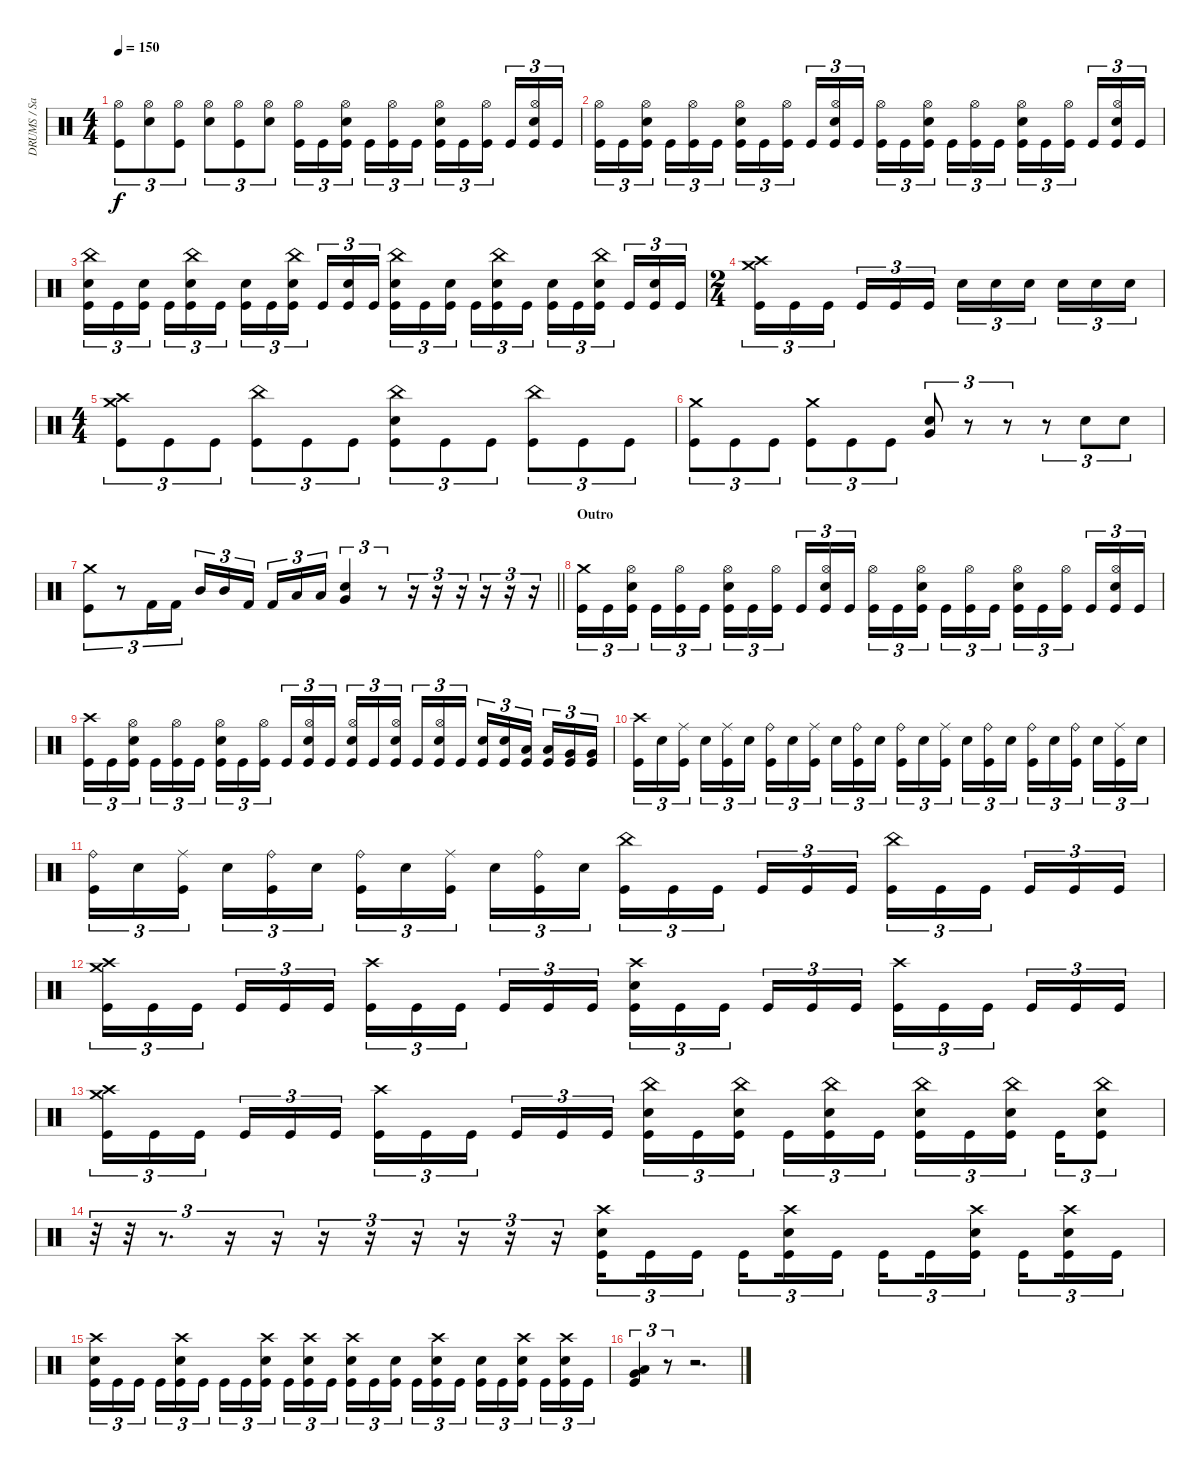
\track ("DRUMS / Sasha" "DRUMS / Sa") {instrument percussion}
\staff {score}
\articulation defaults
\ts (4 4)
\tempo 150
\clef neutral
\ks c
("Kick (hit)" "Hi-Hat (open)").8{tu (3 2) dy f} ("Hi-Hat (open)" "Snare (hit) 2").8{tu (3 2)} ("Kick (hit)" "Hi-Hat (open)").8{tu (3 2)} ("Hi-Hat (open)" "Snare (hit) 2").8{tu (3 2)} ("Kick (hit)" "Hi-Hat (open)").8{tu (3 2)} ("Hi-Hat (open)" "Snare (hit) 2").8{tu (3 2)} ("Kick (hit)" "Hi-Hat (open)").16{tu (3 2)} "Kick (hit)".16{tu (3 2)} ("Kick (hit)" "Hi-Hat (open)" "Snare (hit) 2").16{tu (3 2) beam splitsecondary} "Kick (hit)".16{tu (3 2)} ("Kick (hit)" "Hi-Hat (open)").16{tu (3 2)} "Kick (hit)".16{tu (3 2)} ("Kick (hit)" "Hi-Hat (open)" "Snare (hit) 2").16{tu (3 2)} "Kick (hit)".16{tu (3 2)} ("Kick (hit)" "Hi-Hat (open)").16{tu (3 2) beam splitsecondary} "Kick (hit)".16{tu (3 2)} ("Kick (hit)" "Hi-Hat (open)" "Snare (hit) 2").16{tu (3 2)} "Kick (hit)".16{tu (3 2)} |
("Kick (hit)" "Hi-Hat (open)").16{tu (3 2)} "Kick (hit)".16{tu (3 2)} ("Kick (hit)" "Hi-Hat (open)" "Snare (hit) 2").16{tu (3 2) beam splitsecondary} "Kick (hit)".16{tu (3 2)} ("Kick (hit)" "Hi-Hat (open)").16{tu (3 2)} "Kick (hit)".16{tu (3 2)} ("Kick (hit)" "Hi-Hat (open)" "Snare (hit) 2").16{tu (3 2)} "Kick (hit)".16{tu (3 2)} ("Kick (hit)" "Hi-Hat (open)").16{tu (3 2) beam splitsecondary} "Kick (hit)".16{tu (3 2)} ("Kick (hit)" "Hi-Hat (open)" "Snare (hit) 2").16{tu (3 2)} "Kick (hit)".16{tu (3 2)} ("Kick (hit)" "Hi-Hat (open)").16{tu (3 2)} "Kick (hit)".16{tu (3 2)} ("Kick (hit)" "Snare (hit) 2" "Hi-Hat (open)").16{tu (3 2) beam splitsecondary} "Kick (hit)".16{tu (3 2)} ("Kick (hit)" "Hi-Hat (open)").16{tu (3 2)} "Kick (hit)".16{tu (3 2)} ("Kick (hit)" "Snare (hit) 2" "Hi-Hat (open)").16{tu (3 2)} "Kick (hit)".16{tu (3 2)} ("Kick (hit)" "Hi-Hat (open)").16{tu (3 2) beam splitsecondary} "Kick (hit)".16{tu (3 2)} ("Kick (hit)" "Snare (hit) 2" "Hi-Hat (open)").16{tu (3 2)} "Kick (hit)".16{tu (3 2)} |
("Kick (hit)" "Snare (hit) 2" "China (hit)").16{tu (3 2)} "Kick (hit)".16{tu (3 2)} ("Kick (hit)" "Snare (hit) 2").16{tu (3 2) beam splitsecondary} "Kick (hit)".16{tu (3 2)} ("Kick (hit)" "Snare (hit) 2" "China (hit)").16{tu (3 2)} "Kick (hit)".16{tu (3 2)} ("Kick (hit)" "Snare (hit) 2").16{tu (3 2)} "Kick (hit)".16{tu (3 2)} ("Kick (hit)" "Snare (hit) 2" "China (hit)").16{tu (3 2) beam splitsecondary} "Kick (hit)".16{tu (3 2)} ("Kick (hit)" "Snare (hit) 2").16{tu (3 2)} "Kick (hit)".16{tu (3 2)} ("Kick (hit)" "Snare (hit) 2" "China (hit)").16{tu (3 2)} "Kick (hit)".16{tu (3 2)} ("Kick (hit)" "Snare (hit) 2").16{tu (3 2) beam splitsecondary} "Kick (hit)".16{tu (3 2)} ("Kick (hit)" "Snare (hit) 2" "China (hit)").16{tu (3 2)} "Kick (hit)".16{tu (3 2)} ("Kick (hit)" "Snare (hit) 2").16{tu (3 2)} "Kick (hit)".16{tu (3 2)} ("Kick (hit)" "Snare (hit) 2" "China (hit)").16{tu (3 2) beam splitsecondary} "Kick (hit)".16{tu (3 2)} ("Kick (hit)" "Snare (hit) 2").16{tu (3 2)} "Kick (hit)".16{tu (3 2)} |
\ts (2 4)
("Kick (hit)" "Crash medium (hit)" "Crash high (hit)").16{tu (3 2)} "Kick (hit)".16{tu (3 2)} "Kick (hit)".16{tu (3 2) beam splitsecondary} "Kick (hit)".16{tu (3 2)} "Kick (hit)".16{tu (3 2)} "Kick (hit)".16{tu (3 2)} "Snare (hit) 2".16{tu (3 2)} "Snare (hit) 2".16{tu (3 2)} "Snare (hit) 2".16{tu (3 2) beam splitsecondary} "Snare (hit) 2".16{tu (3 2)} "Snare (hit) 2".16{tu (3 2)} "Snare (hit) 2".16{tu (3 2)} |
\ts (4 4)
("Kick (hit)" "Crash medium (hit)" "Crash high (hit)").8{tu (3 2)} "Kick (hit)".8{tu (3 2)} "Kick (hit)".8{tu (3 2)} ("Kick (hit)" "China (hit)").8{tu (3 2)} "Kick (hit)".8{tu (3 2)} "Kick (hit)".8{tu (3 2)} ("Kick (hit)" "Snare (hit) 2" "China (hit)").8{tu (3 2)} "Kick (hit)".8{tu (3 2)} "Kick (hit)".8{tu (3 2)} ("Kick (hit)" "China (hit)").8{tu (3 2)} "Kick (hit)".8{tu (3 2)} "Kick (hit)".8{tu (3 2)} |
("Kick (hit)" "Crash medium (hit)").8{tu (3 2)} "Kick (hit)".8{tu (3 2)} "Kick (hit)".8{tu (3 2)} ("Kick (hit)" "Crash medium (hit)").8{tu (3 2)} "Kick (hit)".8{tu (3 2)} "Kick (hit)".8{tu (3 2)} ("Very Low Tom (hit)" "Snare (hit) 2").8{tu (3 2)} r.8{tu (3 2)} r.8{tu (3 2)} r.8{tu (3 2)} "Snare (hit) 2".8{tu (3 2)} "Snare (hit) 2".8{tu (3 2)} |
\barLineRight lightlight
("Kick (hit)" "Crash medium (hit)").8{tu (3 2)} r.8{tu (3 2)} "Kick (hit) 2".16{tu (3 2)} "Kick (hit) 2".16{tu (3 2)} "Mid Tom (hit)".16{tu (3 2)} "Mid Tom (hit)".16{tu (3 2)} "Kick (hit) 2".16{tu (3 2) beam splitsecondary} "Kick (hit) 2".16{tu (3 2)} "Low Tom (hit)".16{tu (3 2)} "Low Tom (hit)".16{tu (3 2)} ("Very Low Tom (hit)" "Electric Snare (hit)").4{tu (3 2)} r.8{tu (3 2)} r.16{tu (3 2)} r.16{tu (3 2)} r.16{tu (3 2)} r.16{tu (3 2)} r.16{tu (3 2)} r.16{tu (3 2)} |
\section ("" "Outro")
("Kick (hit)" "Crash medium (hit)").16{tu (3 2)} "Kick (hit)".16{tu (3 2)} ("Hi-Hat (open)" "Snare (hit) 2" "Kick (hit)").16{tu (3 2) beam splitsecondary} "Kick (hit)".16{tu (3 2)} ("Hi-Hat (open)" "Kick (hit)").16{tu (3 2)} "Kick (hit)".16{tu (3 2)} ("Hi-Hat (open)" "Snare (hit) 2" "Kick (hit)").16{tu (3 2)} "Kick (hit)".16{tu (3 2)} ("Hi-Hat (open)" "Kick (hit)").16{tu (3 2) beam splitsecondary} "Kick (hit)".16{tu (3 2)} ("Hi-Hat (open)" "Snare (hit) 2" "Kick (hit)").16{tu (3 2)} "Kick (hit)".16{tu (3 2)} ("Hi-Hat (open)" "Kick (hit)").16{tu (3 2)} "Kick (hit)".16{tu (3 2)} ("Hi-Hat (open)" "Snare (hit) 2" "Kick (hit)").16{tu (3 2) beam splitsecondary} "Kick (hit)".16{tu (3 2)} ("Hi-Hat (open)" "Kick (hit)").16{tu (3 2)} "Kick (hit)".16{tu (3 2)} ("Hi-Hat (open)" "Snare (hit) 2" "Kick (hit)").16{tu (3 2)} "Kick (hit)".16{tu (3 2)} ("Hi-Hat (open)" "Kick (hit)").16{tu (3 2) beam splitsecondary} "Kick (hit)".16{tu (3 2)} ("Hi-Hat (open)" "Snare (hit) 2" "Kick (hit)").16{tu (3 2)} "Kick (hit)".16{tu (3 2)} |
("Crash high (hit)" "Kick (hit)").16{tu (3 2)} "Kick (hit)".16{tu (3 2)} ("Hi-Hat (open)" "Snare (hit) 2" "Kick (hit)").16{tu (3 2) beam splitsecondary} "Kick (hit)".16{tu (3 2)} ("Hi-Hat (open)" "Kick (hit)").16{tu (3 2)} "Kick (hit)".16{tu (3 2)} ("Hi-Hat (open)" "Snare (hit) 2" "Kick (hit)").16{tu (3 2)} "Kick (hit)".16{tu (3 2)} ("Hi-Hat (open)" "Kick (hit)").16{tu (3 2) beam splitsecondary} "Kick (hit)".16{tu (3 2)} ("Hi-Hat (open)" "Snare (hit) 2" "Kick (hit)").16{tu (3 2)} "Kick (hit)".16{tu (3 2)} ("Hi-Hat (open)" "Snare (hit) 2" "Kick (hit)").16{tu (3 2)} "Kick (hit)".16{tu (3 2)} ("Hi-Hat (open)" "Snare (hit) 2" "Kick (hit)").16{tu (3 2) beam splitsecondary} "Kick (hit)".16{tu (3 2)} ("Hi-Hat (open)" "Snare (hit) 2" "Kick (hit)").16{tu (3 2)} "Kick (hit)".16{tu (3 2)} ("Snare (hit) 2" "Kick (hit)").16{tu (3 2)} ("Snare (hit) 2" "Kick (hit)").16{tu (3 2)} ("Low Tom (hit)" "Kick (hit)").16{tu (3 2) beam splitsecondary} ("Low Tom (hit)" "Kick (hit)").16{tu (3 2)} ("Very Low Tom (hit)" "Kick (hit)").16{tu (3 2)} ("Very Low Tom (hit)" "Kick (hit)").16{tu (3 2)} |
("Crash high (hit)" "Kick (hit)").16{tu (3 2)} "Snare (hit) 2".16{tu (3 2)} ("Ride (middle)" "Kick (hit)").16{tu (3 2) beam splitsecondary} "Snare (hit) 2".16{tu (3 2)} ("Ride (middle)" "Kick (hit)").16{tu (3 2)} "Snare (hit) 2".16{tu (3 2)} ("Ride (bell)" "Kick (hit)").16{tu (3 2)} "Snare (hit) 2".16{tu (3 2)} ("Ride (middle)" "Kick (hit)").16{tu (3 2) beam splitsecondary} "Snare (hit) 2".16{tu (3 2)} ("Ride (bell)" "Kick (hit)").16{tu (3 2)} "Snare (hit) 2".16{tu (3 2)} ("Ride (bell)" "Kick (hit)").16{tu (3 2)} "Snare (hit) 2".16{tu (3 2)} ("Ride (middle)" "Kick (hit)").16{tu (3 2) beam splitsecondary} "Snare (hit) 2".16{tu (3 2)} ("Ride (bell)" "Kick (hit)").16{tu (3 2)} "Snare (hit) 2".16{tu (3 2)} ("Ride (bell)" "Kick (hit)").16{tu (3 2)} "Snare (hit) 2".16{tu (3 2)} ("Ride (bell)" "Kick (hit)").16{tu (3 2) beam splitsecondary} "Snare (hit) 2".16{tu (3 2)} ("Ride (middle)" "Kick (hit)").16{tu (3 2)} "Snare (hit) 2".16{tu (3 2)} |
("Ride (bell)" "Kick (hit)").16{tu (3 2)} "Snare (hit) 2".16{tu (3 2)} ("Ride (middle)" "Kick (hit)").16{tu (3 2) beam splitsecondary} "Snare (hit) 2".16{tu (3 2)} ("Ride (bell)" "Kick (hit)").16{tu (3 2)} "Snare (hit) 2".16{tu (3 2)} ("Ride (bell)" "Kick (hit)").16{tu (3 2)} "Snare (hit) 2".16{tu (3 2)} ("Ride (middle)" "Kick (hit)").16{tu (3 2) beam splitsecondary} "Snare (hit) 2".16{tu (3 2)} ("Ride (bell)" "Kick (hit)").16{tu (3 2)} "Snare (hit) 2".16{tu (3 2)} ("China (hit)" "Kick (hit)").16{tu (3 2)} "Kick (hit)".16{tu (3 2)} "Kick (hit)".16{tu (3 2) beam splitsecondary} "Kick (hit)".16{tu (3 2)} "Kick (hit)".16{tu (3 2)} "Kick (hit)".16{tu (3 2)} ("China (hit)" "Kick (hit)").16{tu (3 2)} "Kick (hit)".16{tu (3 2)} "Kick (hit)".16{tu (3 2) beam splitsecondary} "Kick (hit)".16{tu (3 2)} "Kick (hit)".16{tu (3 2)} "Kick (hit)".16{tu (3 2)} |
("Crash high (hit)" "Crash medium (hit)" "Kick (hit)").16{tu (3 2)} "Kick (hit)".16{tu (3 2)} "Kick (hit)".16{tu (3 2) beam splitsecondary} "Kick (hit)".16{tu (3 2)} "Kick (hit)".16{tu (3 2)} "Kick (hit)".16{tu (3 2)} ("Crash high (hit)" "Kick (hit)").16{tu (3 2)} "Kick (hit)".16{tu (3 2)} "Kick (hit)".16{tu (3 2) beam splitsecondary} "Kick (hit)".16{tu (3 2)} "Kick (hit)".16{tu (3 2)} "Kick (hit)".16{tu (3 2)} ("Crash high (hit)" "Snare (hit) 2" "Kick (hit)").16{tu (3 2)} "Kick (hit)".16{tu (3 2)} "Kick (hit)".16{tu (3 2) beam splitsecondary} "Kick (hit)".16{tu (3 2)} "Kick (hit)".16{tu (3 2)} "Kick (hit)".16{tu (3 2)} ("Crash high (hit)" "Kick (hit)").16{tu (3 2)} "Kick (hit)".16{tu (3 2)} "Kick (hit)".16{tu (3 2) beam splitsecondary} "Kick (hit)".16{tu (3 2)} "Kick (hit)".16{tu (3 2)} "Kick (hit)".16{tu (3 2)} |
("Crash high (hit)" "Crash medium (hit)" "Kick (hit)").16{tu (3 2)} "Kick (hit)".16{tu (3 2)} "Kick (hit)".16{tu (3 2) beam splitsecondary} "Kick (hit)".16{tu (3 2)} "Kick (hit)".16{tu (3 2)} "Kick (hit)".16{tu (3 2)} ("Crash high (hit)" "Kick (hit)").16{tu (3 2)} "Kick (hit)".16{tu (3 2)} "Kick (hit)".16{tu (3 2) beam splitsecondary} "Kick (hit)".16{tu (3 2)} "Kick (hit)".16{tu (3 2)} "Kick (hit)".16{tu (3 2)} ("China (hit)" "Snare (hit) 2" "Kick (hit)").16{tu (3 2)} "Kick (hit)".16{tu (3 2)} ("China (hit)" "Snare (hit) 2" "Kick (hit)").16{tu (3 2) beam splitsecondary} "Kick (hit)".16{tu (3 2)} ("China (hit)" "Snare (hit) 2" "Kick (hit)").16{tu (3 2)} "Kick (hit)".16{tu (3 2)} ("China (hit)" "Snare (hit) 2" "Kick (hit)").16{tu (3 2)} "Kick (hit)".16{tu (3 2)} ("China (hit)" "Snare (hit) 2" "Kick (hit)").16{tu (3 2) beam splitsecondary} "Kick (hit)".16{tu (3 2)} ("China (hit)" "Snare (hit) 2" "Kick (hit)").8{tu (3 2)} |
r.32{tu (3 2)} r.32{tu (3 2)} r.8{d tu (3 2)} r.16{tu (3 2)} r.16{tu (3 2)} r.16{tu (3 2)} r.16{tu (3 2)} r.16{tu (3 2)} r.16{tu (3 2)} r.16{tu (3 2)} r.16{tu (3 2)} ("Crash high (hit)" "Snare (hit) 2" "Kick (hit)").16{tu (3 2) beam splitsecondary} "Kick (hit)".16{tu (3 2)} "Kick (hit)".16{tu (3 2)} "Kick (hit)".16{tu (3 2) beam splitsecondary} ("Crash high (hit)" "Snare (hit) 2" "Kick (hit)").16{tu (3 2)} "Kick (hit)".16{tu (3 2)} "Kick (hit)".16{tu (3 2) beam splitsecondary} "Kick (hit)".16{tu (3 2)} ("Crash high (hit)" "Snare (hit) 2" "Kick (hit)").16{tu (3 2)} "Kick (hit)".16{tu (3 2) beam splitsecondary} ("Crash high (hit)" "Snare (hit) 2" "Kick (hit)").16{tu (3 2)} "Kick (hit)".16{tu (3 2)} |
("Crash high (hit)" "Snare (hit) 2" "Kick (hit)").16{tu (3 2)} "Kick (hit)".16{tu (3 2)} "Kick (hit)".16{tu (3 2) beam splitsecondary} "Kick (hit)".16{tu (3 2)} ("Crash high (hit)" "Snare (hit) 2" "Kick (hit)").16{tu (3 2)} "Kick (hit)".16{tu (3 2)} "Kick (hit)".16{tu (3 2)} "Kick (hit)".16{tu (3 2)} ("Crash high (hit)" "Snare (hit) 2" "Kick (hit)").16{tu (3 2) beam splitsecondary} "Kick (hit)".16{tu (3 2)} ("Crash high (hit)" "Snare (hit) 2" "Kick (hit)").16{tu (3 2)} "Kick (hit)".16{tu (3 2)} ("Crash high (hit)" "Snare (hit) 2" "Kick (hit)").16{tu (3 2)} "Kick (hit)".16{tu (3 2)} ("Snare (hit) 2" "Kick (hit)").16{tu (3 2) beam splitsecondary} "Kick (hit)".16{tu (3 2)} ("Crash high (hit)" "Snare (hit) 2" "Kick (hit)").16{tu (3 2)} "Kick (hit)".16{tu (3 2)} ("Snare (hit) 2" "Kick (hit)").16{tu (3 2)} "Kick (hit)".16{tu (3 2)} ("Crash high (hit)" "Snare (hit) 2" "Kick (hit)").16{tu (3 2) beam splitsecondary} "Kick (hit)".16{tu (3 2)} ("Crash high (hit)" "Snare (hit) 2" "Kick (hit)").16{tu (3 2)} "Kick (hit)".16{tu (3 2)} |
("Kick (hit)" "Low Floor Tom (hit)" "Very Low Tom (hit)").4{tu (3 2)} r.8{tu (3 2)} r.2{d}
